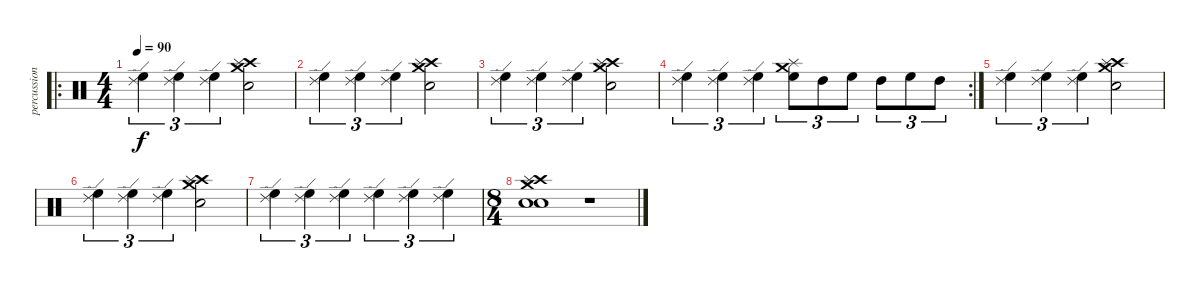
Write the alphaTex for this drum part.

\track ("percussion" "percussion") {instrument percussion}
\staff {score}
\articulation defaults
\ro
\ts (4 4)
\tempo 90
\clef neutral
\ks c
("Ride (edge) 2" "High Floor Tom (hit)").4{tu (3 2) dy f} ("Ride (edge) 2" "High Floor Tom (hit)").4{tu (3 2)} ("Ride (edge) 2" "High Floor Tom (hit)").4{tu (3 2)} ("Crash high (hit)" "Crash medium (hit)" "Splash (hit)" "Snare (hit) 2").2 |
("Ride (edge) 2" "High Floor Tom (hit)").4{tu (3 2)} ("Ride (edge) 2" "High Floor Tom (hit)").4{tu (3 2)} ("Ride (edge) 2" "High Floor Tom (hit)").4{tu (3 2)} ("Crash high (hit)" "Crash medium (hit)" "Splash (hit)" "Snare (hit) 2").2 |
("Ride (edge) 2" "High Floor Tom (hit)").4{tu (3 2)} ("Ride (edge) 2" "High Floor Tom (hit)").4{tu (3 2)} ("Ride (edge) 2" "High Floor Tom (hit)").4{tu (3 2)} ("Crash high (hit)" "Crash medium (hit)" "Splash (hit)" "Snare (hit) 2").2 |
\rc 2
("Ride (edge) 2" "High Floor Tom (hit)").4{tu (3 2)} ("Ride (edge) 2" "High Floor Tom (hit)").4{tu (3 2)} ("Ride (edge) 2" "High Floor Tom (hit)").4{tu (3 2)} ("Crash medium (hit)" "Splash (hit)" "High Floor Tom (hit)").8{tu (3 2)} "High Tom (hit)".8{tu (3 2)} "High Floor Tom (hit)".8{tu (3 2)} "High Tom (hit)".8{tu (3 2)} "High Floor Tom (hit)".8{tu (3 2)} "High Tom (hit)".8{tu (3 2)} |
("Ride (edge) 2" "High Floor Tom (hit)").4{tu (3 2)} ("Ride (edge) 2" "High Floor Tom (hit)").4{tu (3 2)} ("Ride (edge) 2" "High Floor Tom (hit)").4{tu (3 2)} ("Crash high (hit)" "Crash medium (hit)" "Splash (hit)" "Snare (hit) 2").2 |
("Ride (edge) 2" "High Floor Tom (hit)").4{tu (3 2)} ("Ride (edge) 2" "High Floor Tom (hit)").4{tu (3 2)} ("Ride (edge) 2" "High Floor Tom (hit)").4{tu (3 2)} ("Crash high (hit)" "Crash medium (hit)" "Splash (hit)" "Snare (hit) 2").2 |
("Ride (edge) 2" "High Floor Tom (hit)").4{tu (3 2)} ("Ride (edge) 2" "High Floor Tom (hit)").4{tu (3 2)} ("Ride (edge) 2" "High Floor Tom (hit)").4{tu (3 2)} ("Ride (edge) 2" "High Floor Tom (hit)").4{tu (3 2)} ("Ride (edge) 2" "High Floor Tom (hit)").4{tu (3 2)} ("Ride (edge) 2" "High Floor Tom (hit)").4{tu (3 2)} |
\ts (8 4)
("Crash high (hit)" "Crash medium (hit)" "Splash (hit)" "Snare (hit) 2" "Electric Snare (hit)").1 r.1
